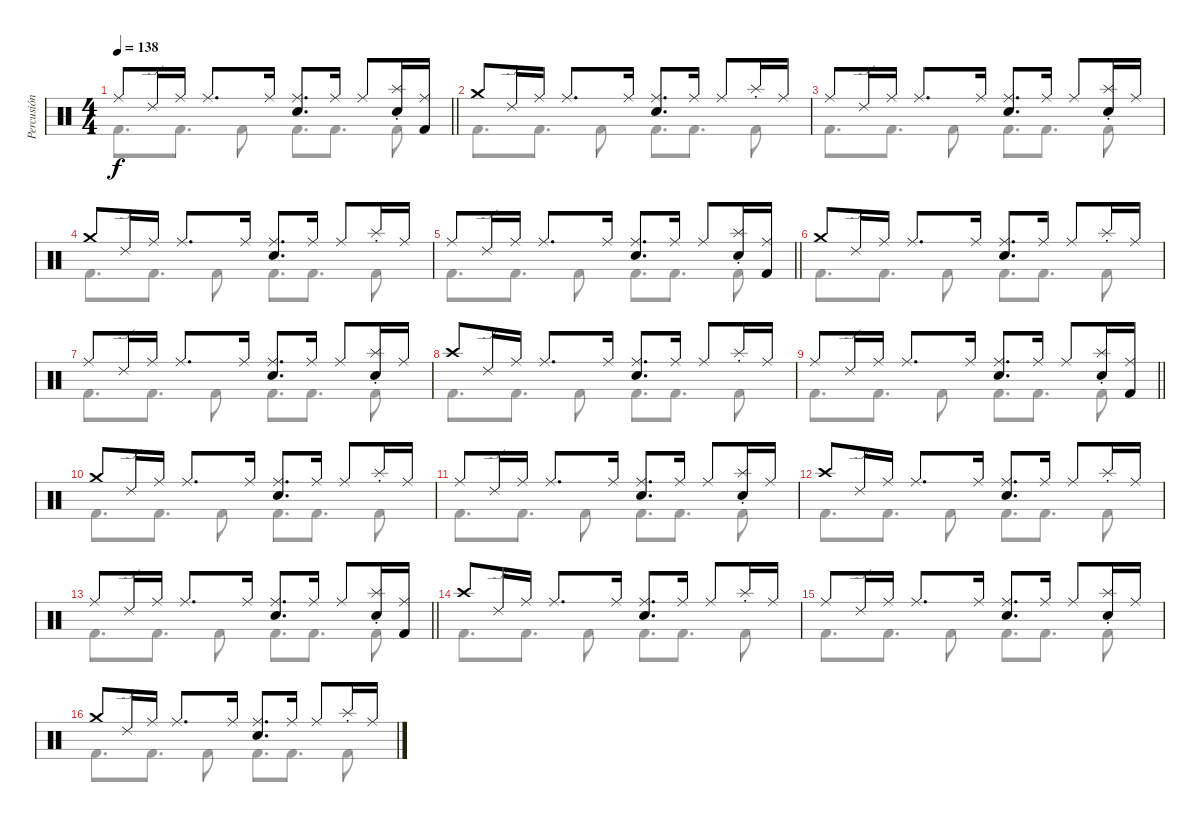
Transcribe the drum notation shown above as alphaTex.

\track ("Percusión" "Percusión") {instrument percussion}
\staff {score}
\articulation defaults
\voice
\ts (4 4)
\tempo 138
\clef neutral
\barLineRight lightlight
\ks c "Ride (middle)".8{dy f} "Ride (edge) 2".16 "Ride (middle)".16 "Ride (middle)".8{d} "Ride (middle)".16
("Electric Snare (hit)" "Ride (middle)").8{d} "Ride (middle)".16 "Ride (middle)".8 ("Electric Snare (hit)" "Splash (choke)").16 ("Kick (hit) 2" "Ride (middle)").16 |
"Crash medium (hit)".8 "Ride (edge) 2".16 "Ride (middle)".16 "Ride (middle)".8{d} "Ride (middle)".16 ("Electric Snare (hit)" "Ride (middle)").8{d} "Ride (middle)".16 "Ride (middle)".8 "Splash (choke)".16 "Ride (middle)".16 |
"Ride (middle)".8 "Ride (edge) 2".16 "Ride (middle)".16 "Ride (middle)".8{d} "Ride (middle)".16 ("Electric Snare (hit)" "Ride (middle)").8{d} "Ride (middle)".16 "Ride (middle)".8 ("Electric Snare (hit)" "Splash (choke)").16 "Ride (middle)".16 |
"Crash medium (hit)".8 "Ride (edge) 2".16 "Ride (middle)".16 "Ride (middle)".8{d} "Ride (middle)".16 ("Electric Snare (hit)" "Ride (middle)").8{d} "Ride (middle)".16 "Ride (middle)".8 "Splash (choke)".16 "Ride (middle)".16 |
\barLineRight lightlight "Ride (middle)".8 "Ride (edge) 2".16 "Ride (middle)".16 "Ride (middle)".8{d} "Ride (middle)".16
("Electric Snare (hit)" "Ride (middle)").8{d} "Ride (middle)".16 "Ride (middle)".8 ("Electric Snare (hit)" "Splash (choke)").16 ("Kick (hit) 2" "Ride (middle)").16 |
"Crash medium (hit)".8 "Ride (edge) 2".16 "Ride (middle)".16 "Ride (middle)".8{d} "Ride (middle)".16 ("Electric Snare (hit)" "Ride (middle)").8{d} "Ride (middle)".16 "Ride (middle)".8 "Splash (choke)".16 "Ride (middle)".16 |
"Ride (middle)".8 "Ride (edge) 2".16 "Ride (middle)".16 "Ride (middle)".8{d} "Ride (middle)".16 ("Electric Snare (hit)" "Ride (middle)").8{d} "Ride (middle)".16 "Ride (middle)".8 ("Electric Snare (hit)" "Splash (choke)").16 "Ride (middle)".16 |
"Crash high (hit)".8 "Ride (edge) 2".16 "Ride (middle)".16 "Ride (middle)".8{d} "Ride (middle)".16 ("Electric Snare (hit)" "Ride (middle)").8{d} "Ride (middle)".16 "Ride (middle)".8 "Splash (choke)".16 "Ride (middle)".16 |
\barLineRight lightlight "Ride (middle)".8 "Ride (edge) 2".16 "Ride (middle)".16 "Ride (middle)".8{d} "Ride (middle)".16
("Electric Snare (hit)" "Ride (middle)").8{d} "Ride (middle)".16 "Ride (middle)".8 ("Electric Snare (hit)" "Splash (choke)").16 ("Kick (hit) 2" "Ride (middle)").16 |
"Crash medium (hit)".8 "Ride (edge) 2".16 "Ride (middle)".16 "Ride (middle)".8{d} "Ride (middle)".16 ("Electric Snare (hit)" "Ride (middle)").8{d} "Ride (middle)".16 "Ride (middle)".8 "Splash (choke)".16 "Ride (middle)".16 |
"Ride (middle)".8 "Ride (edge) 2".16 "Ride (middle)".16 "Ride (middle)".8{d} "Ride (middle)".16 ("Electric Snare (hit)" "Ride (middle)").8{d} "Ride (middle)".16 "Ride (middle)".8 ("Electric Snare (hit)" "Splash (choke)").16 "Ride (middle)".16 |
"Crash high (hit)".8 "Ride (edge) 2".16 "Ride (middle)".16 "Ride (middle)".8{d} "Ride (middle)".16 ("Electric Snare (hit)" "Ride (middle)").8{d} "Ride (middle)".16 "Ride (middle)".8 "Splash (choke)".16 "Ride (middle)".16 |
\barLineRight lightlight "Ride (middle)".8 "Ride (edge) 2".16 "Ride (middle)".16 "Ride (middle)".8{d} "Ride (middle)".16
("Electric Snare (hit)" "Ride (middle)").8{d} "Ride (middle)".16 "Ride (middle)".8 ("Electric Snare (hit)" "Splash (choke)").16 ("Kick (hit) 2" "Ride (middle)").16 |
"Crash high (hit)".8 "Ride (edge) 2".16 "Ride (middle)".16 "Ride (middle)".8{d} "Ride (middle)".16 ("Electric Snare (hit)" "Ride (middle)").8{d} "Ride (middle)".16 "Ride (middle)".8 "Splash (choke)".16 "Ride (middle)".16 |
"Ride (middle)".8 "Ride (edge) 2".16 "Ride (middle)".16 "Ride (middle)".8{d} "Ride (middle)".16 ("Electric Snare (hit)" "Ride (middle)").8{d} "Ride (middle)".16 "Ride (middle)".8 ("Electric Snare (hit)" "Splash (choke)").16 "Ride (middle)".16 |
"Crash medium (hit)".8 "Ride (edge) 2".16 "Ride (middle)".16 "Ride (middle)".8{d} "Ride (middle)".16 ("Electric Snare (hit)" "Ride (middle)").8{d} "Ride (middle)".16 "Ride (middle)".8 "Splash (choke)".16 "Ride (middle)".16
\voice
\clef neutral
\ottava regular
\simile none
\barLineRight lightlight
\ks c "Kick (hit) 2".8{d dy f} "Kick (hit) 2".8{d} "Kick (hit) 2".8 "Kick (hit) 2".8{d} "Kick (hit) 2".8{d} "Kick (hit) 2".8
|
"Kick (hit) 2".8{d} "Kick (hit) 2".8{d} "Kick (hit) 2".8 "Kick (hit) 2".8{d} "Kick (hit) 2".8{d} "Kick (hit) 2".8 |
"Kick (hit) 2".8{d} "Kick (hit) 2".8{d} "Kick (hit) 2".8 "Kick (hit) 2".8{d} "Kick (hit) 2".8{d} "Kick (hit) 2".8 |
"Kick (hit) 2".8{d} "Kick (hit) 2".8{d} "Kick (hit) 2".8 "Kick (hit) 2".8{d} "Kick (hit) 2".8{d} "Kick (hit) 2".8 |
\barLineRight lightlight "Kick (hit) 2".8{d} "Kick (hit) 2".8{d} "Kick (hit) 2".8 "Kick (hit) 2".8{d} "Kick (hit) 2".8{d} "Kick (hit) 2".8
|
"Kick (hit) 2".8{d} "Kick (hit) 2".8{d} "Kick (hit) 2".8 "Kick (hit) 2".8{d} "Kick (hit) 2".8{d} "Kick (hit) 2".8 |
"Kick (hit) 2".8{d} "Kick (hit) 2".8{d} "Kick (hit) 2".8 "Kick (hit) 2".8{d} "Kick (hit) 2".8{d} "Kick (hit) 2".8 |
"Kick (hit) 2".8{d} "Kick (hit) 2".8{d} "Kick (hit) 2".8 "Kick (hit) 2".8{d} "Kick (hit) 2".8{d} "Kick (hit) 2".8 |
\barLineRight lightlight "Kick (hit) 2".8{d} "Kick (hit) 2".8{d} "Kick (hit) 2".8 "Kick (hit) 2".8{d} "Kick (hit) 2".8{d} "Kick (hit) 2".8
|
"Kick (hit) 2".8{d} "Kick (hit) 2".8{d} "Kick (hit) 2".8 "Kick (hit) 2".8{d} "Kick (hit) 2".8{d} "Kick (hit) 2".8 |
"Kick (hit) 2".8{d} "Kick (hit) 2".8{d} "Kick (hit) 2".8 "Kick (hit) 2".8{d} "Kick (hit) 2".8{d} "Kick (hit) 2".8 |
"Kick (hit) 2".8{d} "Kick (hit) 2".8{d} "Kick (hit) 2".8 "Kick (hit) 2".8{d} "Kick (hit) 2".8{d} "Kick (hit) 2".8 |
\barLineRight lightlight "Kick (hit) 2".8{d} "Kick (hit) 2".8{d} "Kick (hit) 2".8 "Kick (hit) 2".8{d} "Kick (hit) 2".8{d} "Kick (hit) 2".8
|
"Kick (hit) 2".8{d} "Kick (hit) 2".8{d} "Kick (hit) 2".8 "Kick (hit) 2".8{d} "Kick (hit) 2".8{d} "Kick (hit) 2".8 |
"Kick (hit) 2".8{d} "Kick (hit) 2".8{d} "Kick (hit) 2".8 "Kick (hit) 2".8{d} "Kick (hit) 2".8{d} "Kick (hit) 2".8 |
"Kick (hit) 2".8{d} "Kick (hit) 2".8{d} "Kick (hit) 2".8 "Kick (hit) 2".8{d} "Kick (hit) 2".8{d} "Kick (hit) 2".8
